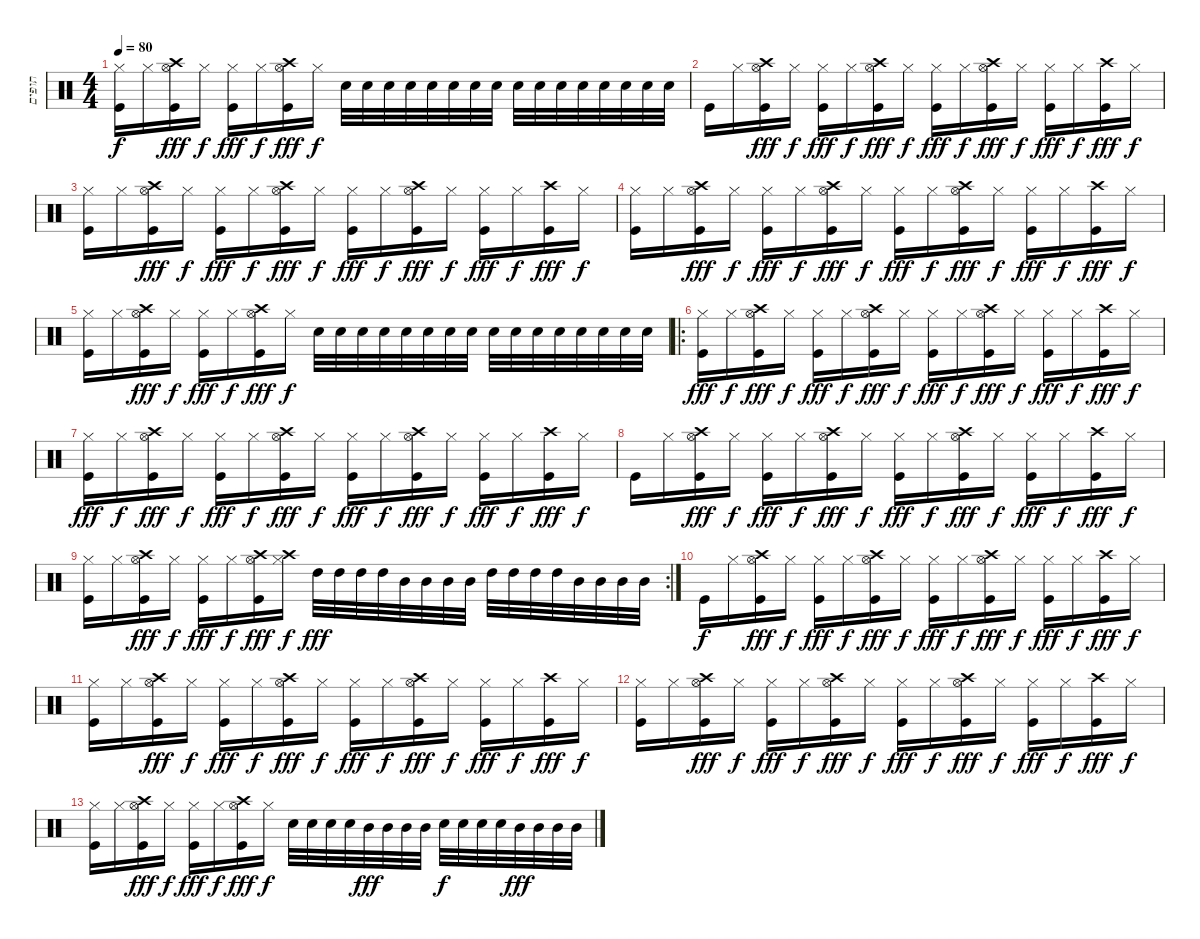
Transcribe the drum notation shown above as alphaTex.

\track ("תופים" "תופים") {instrument percussion}
\staff {score}
\articulation defaults
\ts (4 4)
\tempo 80
\clef neutral
\ks c
("Hi-Hat (closed)" "Kick (hit)").16{dy f} "Hi-Hat (closed)".16 ("Crash high (hit)" "Kick (hit)" "Hi-Hat (open)").16{dy fff} "Hi-Hat (closed)".16{dy f} ("Hi-Hat (closed)" "Kick (hit)").16{dy fff} "Hi-Hat (closed)".16{dy f} ("Crash high (hit)" "Kick (hit)" "Hi-Hat (open)").16{dy fff} "Hi-Hat (closed)".16{dy f} "Snare (hit) 2".32 "Snare (hit) 2".32 "Snare (hit) 2".32 "Snare (hit) 2".32 "Snare (hit) 2".32 "Snare (hit) 2".32 "Snare (hit) 2".32 "Snare (hit) 2".32 "Snare (hit) 2".32 "Snare (hit) 2".32 "Snare (hit) 2".32 "Snare (hit) 2".32 "Snare (hit) 2".32 "Snare (hit) 2".32 "Snare (hit) 2".32 "Snare (hit) 2".32 |
"Kick (hit)".16 "Hi-Hat (closed)".16 ("Crash high (hit)" "Kick (hit)" "Hi-Hat (open)").16{dy fff} "Hi-Hat (closed)".16{dy f} ("Hi-Hat (closed)" "Kick (hit)").16{dy fff} "Hi-Hat (closed)".16{dy f} ("Crash high (hit)" "Kick (hit)" "Hi-Hat (open)").16{dy fff} "Hi-Hat (closed)".16{dy f} ("Hi-Hat (closed)" "Kick (hit)").16{dy fff} "Hi-Hat (closed)".16{dy f} ("Crash high (hit)" "Kick (hit)" "Hi-Hat (open)").16{dy fff} "Hi-Hat (closed)".16{dy f} ("Hi-Hat (closed)" "Kick (hit)").16{dy fff} "Hi-Hat (closed)".16{dy f} ("Crash high (hit)" "Kick (hit)").16{dy fff} "Hi-Hat (closed)".16{dy f} |
("Hi-Hat (closed)" "Kick (hit)").16 "Hi-Hat (closed)".16 ("Crash high (hit)" "Kick (hit)" "Hi-Hat (open)").16{dy fff} "Hi-Hat (closed)".16{dy f} ("Hi-Hat (closed)" "Kick (hit)").16{dy fff} "Hi-Hat (closed)".16{dy f} ("Crash high (hit)" "Kick (hit)" "Hi-Hat (open)").16{dy fff} "Hi-Hat (closed)".16{dy f} ("Hi-Hat (closed)" "Kick (hit)").16{dy fff} "Hi-Hat (closed)".16{dy f} ("Crash high (hit)" "Kick (hit)" "Hi-Hat (open)").16{dy fff} "Hi-Hat (closed)".16{dy f} ("Hi-Hat (closed)" "Kick (hit)").16{dy fff} "Hi-Hat (closed)".16{dy f} ("Crash high (hit)" "Kick (hit)").16{dy fff} "Hi-Hat (closed)".16{dy f} |
("Hi-Hat (closed)" "Kick (hit)").16 "Hi-Hat (closed)".16 ("Crash high (hit)" "Kick (hit)" "Hi-Hat (open)").16{dy fff} "Hi-Hat (closed)".16{dy f} ("Hi-Hat (closed)" "Kick (hit)").16{dy fff} "Hi-Hat (closed)".16{dy f} ("Crash high (hit)" "Kick (hit)" "Hi-Hat (open)").16{dy fff} "Hi-Hat (closed)".16{dy f} ("Hi-Hat (closed)" "Kick (hit)").16{dy fff} "Hi-Hat (closed)".16{dy f} ("Crash high (hit)" "Kick (hit)" "Hi-Hat (open)").16{dy fff} "Hi-Hat (closed)".16{dy f} ("Hi-Hat (closed)" "Kick (hit)").16{dy fff} "Hi-Hat (closed)".16{dy f} ("Crash high (hit)" "Kick (hit)").16{dy fff} "Hi-Hat (closed)".16{dy f} |
("Hi-Hat (closed)" "Kick (hit)").16 "Hi-Hat (closed)".16 ("Crash high (hit)" "Kick (hit)" "Hi-Hat (open)").16{dy fff} "Hi-Hat (closed)".16{dy f} ("Hi-Hat (closed)" "Kick (hit)").16{dy fff} "Hi-Hat (closed)".16{dy f} ("Crash high (hit)" "Kick (hit)" "Hi-Hat (open)").16{dy fff} "Hi-Hat (closed)".16{dy f} "Snare (hit) 2".32 "Snare (hit) 2".32 "Snare (hit) 2".32 "Snare (hit) 2".32 "Snare (hit) 2".32 "Snare (hit) 2".32 "Snare (hit) 2".32 "Snare (hit) 2".32 "Snare (hit) 2".32 "Snare (hit) 2".32 "Snare (hit) 2".32 "Snare (hit) 2".32 "Snare (hit) 2".32 "Snare (hit) 2".32 "Snare (hit) 2".32 "Snare (hit) 2".32 |
\ro
("Hi-Hat (closed)" "Kick (hit)").16{dy fff} "Hi-Hat (closed)".16{dy f} ("Crash high (hit)" "Kick (hit)" "Hi-Hat (open)").16{dy fff} "Hi-Hat (closed)".16{dy f} ("Hi-Hat (closed)" "Kick (hit)").16{dy fff} "Hi-Hat (closed)".16{dy f} ("Crash high (hit)" "Kick (hit)" "Hi-Hat (open)").16{dy fff} "Hi-Hat (closed)".16{dy f} ("Hi-Hat (closed)" "Kick (hit)").16{dy fff} "Hi-Hat (closed)".16{dy f} ("Crash high (hit)" "Kick (hit)" "Hi-Hat (open)").16{dy fff} "Hi-Hat (closed)".16{dy f} ("Hi-Hat (closed)" "Kick (hit)").16{dy fff} "Hi-Hat (closed)".16{dy f} ("Crash high (hit)" "Kick (hit)").16{dy fff} "Hi-Hat (closed)".16{dy f} |
("Hi-Hat (closed)" "Kick (hit)").16{dy fff} "Hi-Hat (closed)".16{dy f} ("Crash high (hit)" "Kick (hit)" "Hi-Hat (open)").16{dy fff} "Hi-Hat (closed)".16{dy f} ("Hi-Hat (closed)" "Kick (hit)").16{dy fff} "Hi-Hat (closed)".16{dy f} ("Crash high (hit)" "Kick (hit)" "Hi-Hat (open)").16{dy fff} "Hi-Hat (closed)".16{dy f} ("Hi-Hat (closed)" "Kick (hit)").16{dy fff} "Hi-Hat (closed)".16{dy f} ("Crash high (hit)" "Kick (hit)" "Hi-Hat (open)").16{dy fff} "Hi-Hat (closed)".16{dy f} ("Hi-Hat (closed)" "Kick (hit)").16{dy fff} "Hi-Hat (closed)".16{dy f} ("Crash high (hit)" "Kick (hit)").16{dy fff} "Hi-Hat (closed)".16{dy f} |
"Kick (hit)".16 "Hi-Hat (closed)".16 ("Crash high (hit)" "Kick (hit)" "Hi-Hat (open)").16{dy fff} "Hi-Hat (closed)".16{dy f} ("Hi-Hat (closed)" "Kick (hit)").16{dy fff} "Hi-Hat (closed)".16{dy f} ("Crash high (hit)" "Kick (hit)" "Hi-Hat (open)").16{dy fff} "Hi-Hat (closed)".16{dy f} ("Hi-Hat (closed)" "Kick (hit)").16{dy fff} "Hi-Hat (closed)".16{dy f} ("Crash high (hit)" "Kick (hit)" "Hi-Hat (open)").16{dy fff} "Hi-Hat (closed)".16{dy f} ("Hi-Hat (closed)" "Kick (hit)").16{dy fff} "Hi-Hat (closed)".16{dy f} ("Crash high (hit)" "Kick (hit)").16{dy fff} "Hi-Hat (closed)".16{dy f} |
\rc 2
("Hi-Hat (closed)" "Kick (hit)").16 "Hi-Hat (closed)".16 ("Crash high (hit)" "Kick (hit)" "Hi-Hat (open)").16{dy fff} "Hi-Hat (closed)".16{dy f} ("Hi-Hat (closed)" "Kick (hit)").16{dy fff} "Hi-Hat (closed)".16{dy f} ("Crash high (hit)" "Kick (hit)" "Hi-Hat (open)").16{dy fff} ("Hi-Hat (closed)" "Crash high (hit)").16{dy f} "High Tom (hit)".32{dy fff} "High Tom (hit)".32 "High Tom (hit)".32 "High Tom (hit)".32 "Mid Tom (hit)".32 "Mid Tom (hit)".32 "Mid Tom (hit)".32 "Mid Tom (hit)".32 "High Tom (hit)".32 "High Tom (hit)".32 "High Tom (hit)".32 "High Tom (hit)".32 "Mid Tom (hit)".32 "Mid Tom (hit)".32 "Mid Tom (hit)".32 "Mid Tom (hit)".32 |
"Kick (hit)".16{dy f} "Hi-Hat (closed)".16 ("Crash high (hit)" "Kick (hit)" "Hi-Hat (open)").16{dy fff} "Hi-Hat (closed)".16{dy f} ("Hi-Hat (closed)" "Kick (hit)").16{dy fff} "Hi-Hat (closed)".16{dy f} ("Crash high (hit)" "Kick (hit)" "Hi-Hat (open)").16{dy fff} "Hi-Hat (closed)".16{dy f} ("Hi-Hat (closed)" "Kick (hit)").16{dy fff} "Hi-Hat (closed)".16{dy f} ("Crash high (hit)" "Kick (hit)" "Hi-Hat (open)").16{dy fff} "Hi-Hat (closed)".16{dy f} ("Hi-Hat (closed)" "Kick (hit)").16{dy fff} "Hi-Hat (closed)".16{dy f} ("Crash high (hit)" "Kick (hit)").16{dy fff} "Hi-Hat (closed)".16{dy f} |
("Hi-Hat (closed)" "Kick (hit)").16 "Hi-Hat (closed)".16 ("Crash high (hit)" "Kick (hit)" "Hi-Hat (open)").16{dy fff} "Hi-Hat (closed)".16{dy f} ("Hi-Hat (closed)" "Kick (hit)").16{dy fff} "Hi-Hat (closed)".16{dy f} ("Crash high (hit)" "Kick (hit)" "Hi-Hat (open)").16{dy fff} "Hi-Hat (closed)".16{dy f} ("Hi-Hat (closed)" "Kick (hit)").16{dy fff} "Hi-Hat (closed)".16{dy f} ("Crash high (hit)" "Kick (hit)" "Hi-Hat (open)").16{dy fff} "Hi-Hat (closed)".16{dy f} ("Hi-Hat (closed)" "Kick (hit)").16{dy fff} "Hi-Hat (closed)".16{dy f} ("Crash high (hit)" "Kick (hit)").16{dy fff} "Hi-Hat (closed)".16{dy f} |
("Hi-Hat (closed)" "Kick (hit)").16 "Hi-Hat (closed)".16 ("Crash high (hit)" "Kick (hit)" "Hi-Hat (open)").16{dy fff} "Hi-Hat (closed)".16{dy f} ("Hi-Hat (closed)" "Kick (hit)").16{dy fff} "Hi-Hat (closed)".16{dy f} ("Crash high (hit)" "Kick (hit)" "Hi-Hat (open)").16{dy fff} "Hi-Hat (closed)".16{dy f} ("Hi-Hat (closed)" "Kick (hit)").16{dy fff} "Hi-Hat (closed)".16{dy f} ("Crash high (hit)" "Kick (hit)" "Hi-Hat (open)").16{dy fff} "Hi-Hat (closed)".16{dy f} ("Hi-Hat (closed)" "Kick (hit)").16{dy fff} "Hi-Hat (closed)".16{dy f} ("Crash high (hit)" "Kick (hit)").16{dy fff} "Hi-Hat (closed)".16{dy f} |
("Hi-Hat (closed)" "Kick (hit)").16 "Hi-Hat (closed)".16 ("Crash high (hit)" "Kick (hit)" "Hi-Hat (open)").16{dy fff} "Hi-Hat (closed)".16{dy f} ("Hi-Hat (closed)" "Kick (hit)").16{dy fff} "Hi-Hat (closed)".16{dy f} ("Crash high (hit)" "Kick (hit)" "Hi-Hat (open)").16{dy fff} "Hi-Hat (closed)".16{dy f} "Snare (hit) 2".32 "Snare (hit) 2".32 "Snare (hit) 2".32 "Snare (hit) 2".32 "Mid Tom (hit)".32{dy fff} "Mid Tom (hit)".32 "Mid Tom (hit)".32 "Mid Tom (hit)".32 "Snare (hit) 2".32{dy f} "Snare (hit) 2".32 "Snare (hit) 2".32 "Snare (hit) 2".32 "Mid Tom (hit)".32{dy fff} "Mid Tom (hit)".32 "Mid Tom (hit)".32 "Mid Tom (hit)".32
